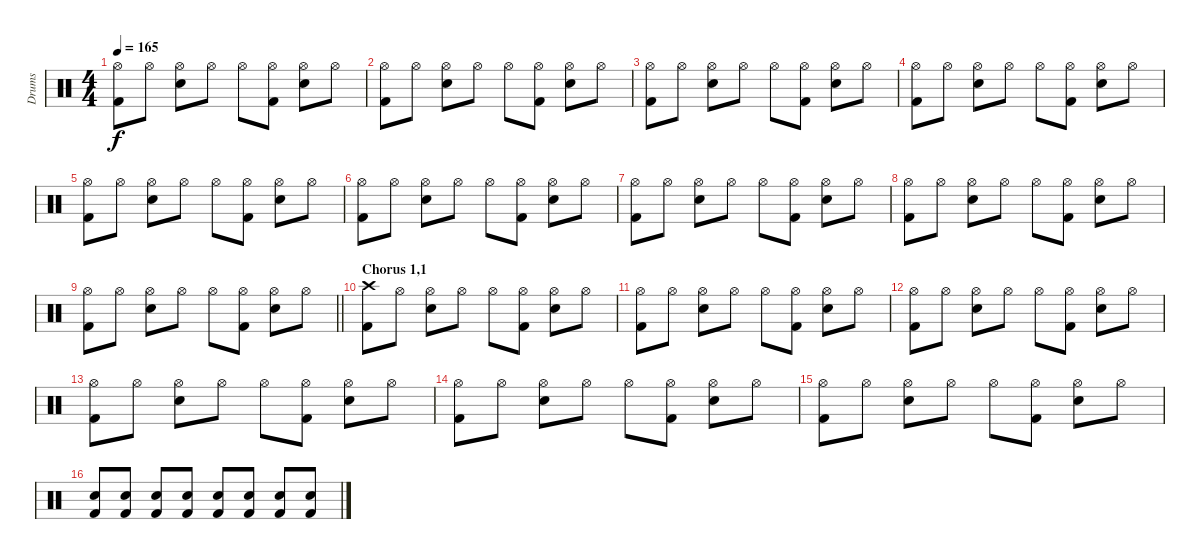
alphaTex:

\track ("Drums" "Drums") {instrument percussion}
\staff {score}
\articulation defaults
\ts (4 4)
\tempo 165
\clef neutral
\ks c
("Kick (hit) 2" "Hi-Hat (open)").8{dy f} "Hi-Hat (open)".8 ("Snare (hit) 2" "Hi-Hat (open)").8 "Hi-Hat (open)".8 "Hi-Hat (open)".8 ("Kick (hit) 2" "Hi-Hat (open)").8 ("Snare (hit) 2" "Hi-Hat (open)").8 "Hi-Hat (open)".8 |
("Kick (hit) 2" "Hi-Hat (open)").8 "Hi-Hat (open)".8 ("Snare (hit) 2" "Hi-Hat (open)").8 "Hi-Hat (open)".8 "Hi-Hat (open)".8 ("Kick (hit) 2" "Hi-Hat (open)").8 ("Snare (hit) 2" "Hi-Hat (open)").8 "Hi-Hat (open)".8 |
("Kick (hit) 2" "Hi-Hat (open)").8 "Hi-Hat (open)".8 ("Snare (hit) 2" "Hi-Hat (open)").8 "Hi-Hat (open)".8 "Hi-Hat (open)".8 ("Kick (hit) 2" "Hi-Hat (open)").8 ("Snare (hit) 2" "Hi-Hat (open)").8 "Hi-Hat (open)".8 |
("Kick (hit) 2" "Hi-Hat (open)").8 "Hi-Hat (open)".8 ("Snare (hit) 2" "Hi-Hat (open)").8 "Hi-Hat (open)".8 "Hi-Hat (open)".8 ("Kick (hit) 2" "Hi-Hat (open)").8 ("Snare (hit) 2" "Hi-Hat (open)").8 "Hi-Hat (open)".8 |
("Kick (hit) 2" "Hi-Hat (open)").8 "Hi-Hat (open)".8 ("Snare (hit) 2" "Hi-Hat (open)").8 "Hi-Hat (open)".8 "Hi-Hat (open)".8 ("Kick (hit) 2" "Hi-Hat (open)").8 ("Snare (hit) 2" "Hi-Hat (open)").8 "Hi-Hat (open)".8 |
("Kick (hit) 2" "Hi-Hat (open)").8 "Hi-Hat (open)".8 ("Snare (hit) 2" "Hi-Hat (open)").8 "Hi-Hat (open)".8 "Hi-Hat (open)".8 ("Kick (hit) 2" "Hi-Hat (open)").8 ("Snare (hit) 2" "Hi-Hat (open)").8 "Hi-Hat (open)".8 |
("Kick (hit) 2" "Hi-Hat (open)").8 "Hi-Hat (open)".8 ("Snare (hit) 2" "Hi-Hat (open)").8 "Hi-Hat (open)".8 "Hi-Hat (open)".8 ("Kick (hit) 2" "Hi-Hat (open)").8 ("Snare (hit) 2" "Hi-Hat (open)").8 "Hi-Hat (open)".8 |
("Kick (hit) 2" "Hi-Hat (open)").8 "Hi-Hat (open)".8 ("Snare (hit) 2" "Hi-Hat (open)").8 "Hi-Hat (open)".8 "Hi-Hat (open)".8 ("Kick (hit) 2" "Hi-Hat (open)").8 ("Snare (hit) 2" "Hi-Hat (open)").8 "Hi-Hat (open)".8 |
\barLineRight lightlight
("Kick (hit) 2" "Hi-Hat (open)").8 "Hi-Hat (open)".8 ("Snare (hit) 2" "Hi-Hat (open)").8 "Hi-Hat (open)".8 "Hi-Hat (open)".8 ("Kick (hit) 2" "Hi-Hat (open)").8 ("Snare (hit) 2" "Hi-Hat (open)").8 "Hi-Hat (open)".8 |
\section ("" "Chorus 1,1")
("Crash high (hit)" "Kick (hit) 2").8 "Hi-Hat (open)".8 ("Hi-Hat (open)" "Snare (hit) 2").8 "Hi-Hat (open)".8 "Hi-Hat (open)".8 ("Kick (hit) 2" "Hi-Hat (open)").8 ("Hi-Hat (open)" "Snare (hit) 2").8 "Hi-Hat (open)".8 |
("Kick (hit) 2" "Hi-Hat (open)").8 "Hi-Hat (open)".8 ("Snare (hit) 2" "Hi-Hat (open)").8 "Hi-Hat (open)".8 "Hi-Hat (open)".8 ("Kick (hit) 2" "Hi-Hat (open)").8 ("Snare (hit) 2" "Hi-Hat (open)").8 "Hi-Hat (open)".8 |
("Kick (hit) 2" "Hi-Hat (open)").8 "Hi-Hat (open)".8 ("Snare (hit) 2" "Hi-Hat (open)").8 "Hi-Hat (open)".8 "Hi-Hat (open)".8 ("Kick (hit) 2" "Hi-Hat (open)").8 ("Snare (hit) 2" "Hi-Hat (open)").8 "Hi-Hat (open)".8 |
("Kick (hit) 2" "Hi-Hat (open)").8 "Hi-Hat (open)".8 ("Snare (hit) 2" "Hi-Hat (open)").8 "Hi-Hat (open)".8 "Hi-Hat (open)".8 ("Kick (hit) 2" "Hi-Hat (open)").8 ("Snare (hit) 2" "Hi-Hat (open)").8 "Hi-Hat (open)".8 |
("Kick (hit) 2" "Hi-Hat (open)").8 "Hi-Hat (open)".8 ("Snare (hit) 2" "Hi-Hat (open)").8 "Hi-Hat (open)".8 "Hi-Hat (open)".8 ("Kick (hit) 2" "Hi-Hat (open)").8 ("Snare (hit) 2" "Hi-Hat (open)").8 "Hi-Hat (open)".8 |
("Kick (hit) 2" "Hi-Hat (open)").8 "Hi-Hat (open)".8 ("Snare (hit) 2" "Hi-Hat (open)").8 "Hi-Hat (open)".8 "Hi-Hat (open)".8 ("Kick (hit) 2" "Hi-Hat (open)").8 ("Snare (hit) 2" "Hi-Hat (open)").8 "Hi-Hat (open)".8 |
("Snare (hit) 2" "Kick (hit) 2").8 ("Snare (hit) 2" "Kick (hit) 2").8 ("Snare (hit) 2" "Kick (hit) 2").8 ("Snare (hit) 2" "Kick (hit) 2").8 ("Snare (hit) 2" "Kick (hit) 2").8 ("Snare (hit) 2" "Kick (hit) 2").8 ("Snare (hit) 2" "Kick (hit) 2").8 ("Snare (hit) 2" "Kick (hit) 2").8
